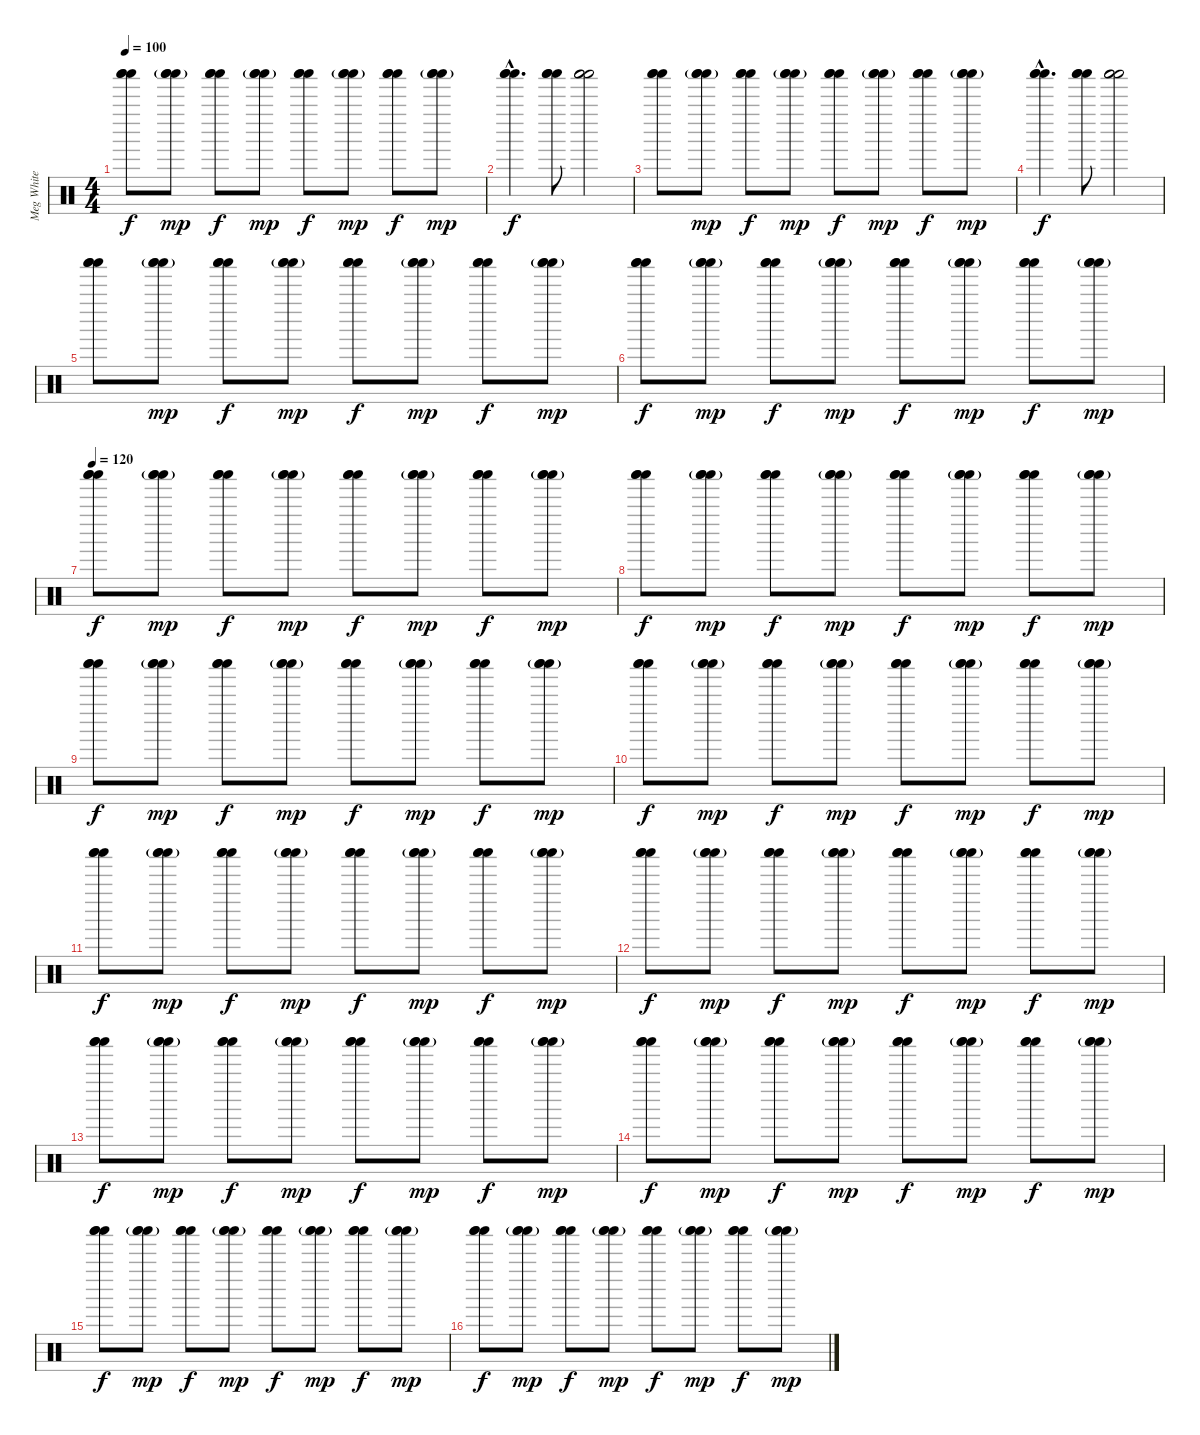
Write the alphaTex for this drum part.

\track ("Meg White" "Meg White") {instrument percussion}
\staff {score}
\articulation defaults
\ts (4 4)
\tempo 100
\clef neutral
\ks c
("Shaker (hit)" "Shaker (hit)" "Shaker (hit)").8{dy f} ("Shaker (hit)"{g} "Shaker (hit)"{g} "Shaker (hit)"{g}).8{dy mp} ("Shaker (hit)" "Shaker (hit)" "Shaker (hit)").8{dy f} ("Shaker (hit)"{g} "Shaker (hit)"{g} "Shaker (hit)"{g}).8{dy mp} ("Shaker (hit)" "Shaker (hit)" "Shaker (hit)").8{dy f} ("Shaker (hit)"{g} "Shaker (hit)"{g} "Shaker (hit)"{g}).8{dy mp} ("Shaker (hit)" "Shaker (hit)" "Shaker (hit)").8{dy f} ("Shaker (hit)"{g} "Shaker (hit)"{g} "Shaker (hit)"{g}).8{dy mp} |
("Shaker (hit)"{hac} "Shaker (hit)"{hac} "Shaker (hit)"{hac}).4{d dy f} ("Shaker (hit)" "Shaker (hit)" "Shaker (hit)").8 ("Shaker (hit)" "Shaker (hit)" "Shaker (hit)").2 |
("Shaker (hit)" "Shaker (hit)" "Shaker (hit)").8 ("Shaker (hit)"{g} "Shaker (hit)"{g} "Shaker (hit)"{g}).8{dy mp} ("Shaker (hit)" "Shaker (hit)" "Shaker (hit)").8{dy f} ("Shaker (hit)"{g} "Shaker (hit)"{g} "Shaker (hit)"{g}).8{dy mp} ("Shaker (hit)" "Shaker (hit)" "Shaker (hit)").8{dy f} ("Shaker (hit)"{g} "Shaker (hit)"{g} "Shaker (hit)"{g}).8{dy mp} ("Shaker (hit)" "Shaker (hit)" "Shaker (hit)").8{dy f} ("Shaker (hit)"{g} "Shaker (hit)"{g} "Shaker (hit)"{g}).8{dy mp} |
("Shaker (hit)"{hac} "Shaker (hit)"{hac} "Shaker (hit)"{hac}).4{d dy f} ("Shaker (hit)" "Shaker (hit)" "Shaker (hit)").8 ("Shaker (hit)" "Shaker (hit)" "Shaker (hit)").2 |
("Shaker (hit)" "Shaker (hit)" "Shaker (hit)").8 ("Shaker (hit)"{g} "Shaker (hit)"{g} "Shaker (hit)"{g}).8{dy mp} ("Shaker (hit)" "Shaker (hit)" "Shaker (hit)").8{dy f} ("Shaker (hit)"{g} "Shaker (hit)"{g} "Shaker (hit)"{g}).8{dy mp} ("Shaker (hit)" "Shaker (hit)" "Shaker (hit)").8{dy f} ("Shaker (hit)"{g} "Shaker (hit)"{g} "Shaker (hit)"{g}).8{dy mp} ("Shaker (hit)" "Shaker (hit)" "Shaker (hit)").8{dy f} ("Shaker (hit)"{g} "Shaker (hit)"{g} "Shaker (hit)"{g}).8{dy mp} |
("Shaker (hit)" "Shaker (hit)" "Shaker (hit)").8{dy f} ("Shaker (hit)"{g} "Shaker (hit)"{g} "Shaker (hit)"{g}).8{dy mp} ("Shaker (hit)" "Shaker (hit)" "Shaker (hit)").8{dy f} ("Shaker (hit)"{g} "Shaker (hit)"{g} "Shaker (hit)"{g}).8{dy mp} ("Shaker (hit)" "Shaker (hit)" "Shaker (hit)").8{dy f} ("Shaker (hit)"{g} "Shaker (hit)"{g} "Shaker (hit)"{g}).8{dy mp} ("Shaker (hit)" "Shaker (hit)" "Shaker (hit)").8{dy f} ("Shaker (hit)"{g} "Shaker (hit)"{g} "Shaker (hit)"{g}).8{dy mp} |
\tempo 120
("Shaker (hit)" "Shaker (hit)" "Shaker (hit)").8{dy f} ("Shaker (hit)"{g} "Shaker (hit)"{g} "Shaker (hit)"{g}).8{dy mp} ("Shaker (hit)" "Shaker (hit)" "Shaker (hit)").8{dy f} ("Shaker (hit)"{g} "Shaker (hit)"{g} "Shaker (hit)"{g}).8{dy mp} ("Shaker (hit)" "Shaker (hit)" "Shaker (hit)").8{dy f} ("Shaker (hit)"{g} "Shaker (hit)"{g} "Shaker (hit)"{g}).8{dy mp} ("Shaker (hit)" "Shaker (hit)" "Shaker (hit)").8{dy f} ("Shaker (hit)"{g} "Shaker (hit)"{g} "Shaker (hit)"{g}).8{dy mp} |
("Shaker (hit)" "Shaker (hit)" "Shaker (hit)").8{dy f} ("Shaker (hit)"{g} "Shaker (hit)"{g} "Shaker (hit)"{g}).8{dy mp} ("Shaker (hit)" "Shaker (hit)" "Shaker (hit)").8{dy f} ("Shaker (hit)"{g} "Shaker (hit)"{g} "Shaker (hit)"{g}).8{dy mp} ("Shaker (hit)" "Shaker (hit)" "Shaker (hit)").8{dy f} ("Shaker (hit)"{g} "Shaker (hit)"{g} "Shaker (hit)"{g}).8{dy mp} ("Shaker (hit)" "Shaker (hit)" "Shaker (hit)").8{dy f} ("Shaker (hit)"{g} "Shaker (hit)"{g} "Shaker (hit)"{g}).8{dy mp} |
("Shaker (hit)" "Shaker (hit)" "Shaker (hit)").8{dy f} ("Shaker (hit)"{g} "Shaker (hit)"{g} "Shaker (hit)"{g}).8{dy mp} ("Shaker (hit)" "Shaker (hit)" "Shaker (hit)").8{dy f} ("Shaker (hit)"{g} "Shaker (hit)"{g} "Shaker (hit)"{g}).8{dy mp} ("Shaker (hit)" "Shaker (hit)" "Shaker (hit)").8{dy f} ("Shaker (hit)"{g} "Shaker (hit)"{g} "Shaker (hit)"{g}).8{dy mp} ("Shaker (hit)" "Shaker (hit)" "Shaker (hit)").8{dy f} ("Shaker (hit)"{g} "Shaker (hit)"{g} "Shaker (hit)"{g}).8{dy mp} |
("Shaker (hit)" "Shaker (hit)" "Shaker (hit)").8{dy f} ("Shaker (hit)"{g} "Shaker (hit)"{g} "Shaker (hit)"{g}).8{dy mp} ("Shaker (hit)" "Shaker (hit)" "Shaker (hit)").8{dy f} ("Shaker (hit)"{g} "Shaker (hit)"{g} "Shaker (hit)"{g}).8{dy mp} ("Shaker (hit)" "Shaker (hit)" "Shaker (hit)").8{dy f} ("Shaker (hit)"{g} "Shaker (hit)"{g} "Shaker (hit)"{g}).8{dy mp} ("Shaker (hit)" "Shaker (hit)" "Shaker (hit)").8{dy f} ("Shaker (hit)"{g} "Shaker (hit)"{g} "Shaker (hit)"{g}).8{dy mp} |
("Shaker (hit)" "Shaker (hit)" "Shaker (hit)").8{dy f} ("Shaker (hit)"{g} "Shaker (hit)"{g} "Shaker (hit)"{g}).8{dy mp} ("Shaker (hit)" "Shaker (hit)" "Shaker (hit)").8{dy f} ("Shaker (hit)"{g} "Shaker (hit)"{g} "Shaker (hit)"{g}).8{dy mp} ("Shaker (hit)" "Shaker (hit)" "Shaker (hit)").8{dy f} ("Shaker (hit)"{g} "Shaker (hit)"{g} "Shaker (hit)"{g}).8{dy mp} ("Shaker (hit)" "Shaker (hit)" "Shaker (hit)").8{dy f} ("Shaker (hit)"{g} "Shaker (hit)"{g} "Shaker (hit)"{g}).8{dy mp} |
("Shaker (hit)" "Shaker (hit)" "Shaker (hit)").8{dy f} ("Shaker (hit)"{g} "Shaker (hit)"{g} "Shaker (hit)"{g}).8{dy mp} ("Shaker (hit)" "Shaker (hit)" "Shaker (hit)").8{dy f} ("Shaker (hit)"{g} "Shaker (hit)"{g} "Shaker (hit)"{g}).8{dy mp} ("Shaker (hit)" "Shaker (hit)" "Shaker (hit)").8{dy f} ("Shaker (hit)"{g} "Shaker (hit)"{g} "Shaker (hit)"{g}).8{dy mp} ("Shaker (hit)" "Shaker (hit)" "Shaker (hit)").8{dy f} ("Shaker (hit)"{g} "Shaker (hit)"{g} "Shaker (hit)"{g}).8{dy mp} |
("Shaker (hit)" "Shaker (hit)" "Shaker (hit)").8{dy f} ("Shaker (hit)"{g} "Shaker (hit)"{g} "Shaker (hit)"{g}).8{dy mp} ("Shaker (hit)" "Shaker (hit)" "Shaker (hit)").8{dy f} ("Shaker (hit)"{g} "Shaker (hit)"{g} "Shaker (hit)"{g}).8{dy mp} ("Shaker (hit)" "Shaker (hit)" "Shaker (hit)").8{dy f} ("Shaker (hit)"{g} "Shaker (hit)"{g} "Shaker (hit)"{g}).8{dy mp} ("Shaker (hit)" "Shaker (hit)" "Shaker (hit)").8{dy f} ("Shaker (hit)"{g} "Shaker (hit)"{g} "Shaker (hit)"{g}).8{dy mp} |
("Shaker (hit)" "Shaker (hit)" "Shaker (hit)").8{dy f} ("Shaker (hit)"{g} "Shaker (hit)"{g} "Shaker (hit)"{g}).8{dy mp} ("Shaker (hit)" "Shaker (hit)" "Shaker (hit)").8{dy f} ("Shaker (hit)"{g} "Shaker (hit)"{g} "Shaker (hit)"{g}).8{dy mp} ("Shaker (hit)" "Shaker (hit)" "Shaker (hit)").8{dy f} ("Shaker (hit)"{g} "Shaker (hit)"{g} "Shaker (hit)"{g}).8{dy mp} ("Shaker (hit)" "Shaker (hit)" "Shaker (hit)").8{dy f} ("Shaker (hit)"{g} "Shaker (hit)"{g} "Shaker (hit)"{g}).8{dy mp} |
("Shaker (hit)" "Shaker (hit)" "Shaker (hit)").8{dy f} ("Shaker (hit)"{g} "Shaker (hit)"{g} "Shaker (hit)"{g}).8{dy mp} ("Shaker (hit)" "Shaker (hit)" "Shaker (hit)").8{dy f} ("Shaker (hit)"{g} "Shaker (hit)"{g} "Shaker (hit)"{g}).8{dy mp} ("Shaker (hit)" "Shaker (hit)" "Shaker (hit)").8{dy f} ("Shaker (hit)"{g} "Shaker (hit)"{g} "Shaker (hit)"{g}).8{dy mp} ("Shaker (hit)" "Shaker (hit)" "Shaker (hit)").8{dy f} ("Shaker (hit)"{g} "Shaker (hit)"{g} "Shaker (hit)"{g}).8{dy mp} |
("Shaker (hit)" "Shaker (hit)" "Shaker (hit)").8{dy f} ("Shaker (hit)"{g} "Shaker (hit)"{g} "Shaker (hit)"{g}).8{dy mp} ("Shaker (hit)" "Shaker (hit)" "Shaker (hit)").8{dy f} ("Shaker (hit)"{g} "Shaker (hit)"{g} "Shaker (hit)"{g}).8{dy mp} ("Shaker (hit)" "Shaker (hit)" "Shaker (hit)").8{dy f} ("Shaker (hit)"{g} "Shaker (hit)"{g} "Shaker (hit)"{g}).8{dy mp} ("Shaker (hit)" "Shaker (hit)" "Shaker (hit)").8{dy f} ("Shaker (hit)"{g} "Shaker (hit)"{g} "Shaker (hit)"{g}).8{dy mp}
